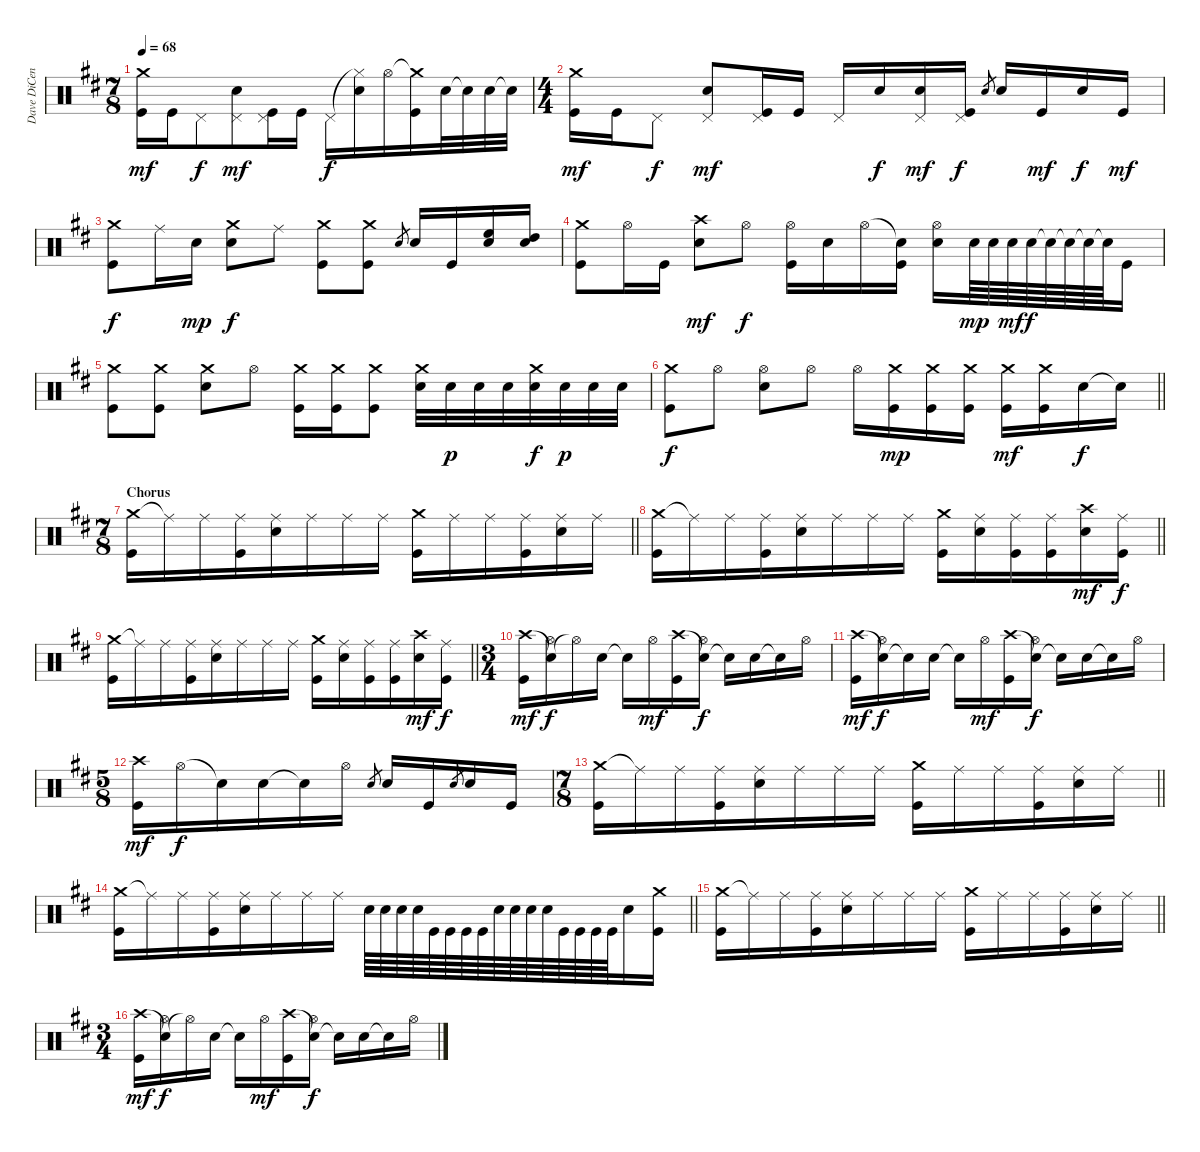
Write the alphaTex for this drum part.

\track ("Dave DiCenso" "Dave DiCen") {instrument percussion}
\staff {score}
\articulation defaults
\ts (7 8)
\tempo 68
\clef neutral
\ks d
("Crash medium (hit)" "Kick (hit)").16{dy mf} "Kick (hit)".16 "Pedal Hi-Hat (hit)".8{dy f} ("Pedal Hi-Hat (hit)" "Electric Snare (hit)").8{dy mf} ("Pedal Hi-Hat (hit)" "Kick (hit)").16 "Kick (hit)".16 "Pedal Hi-Hat (hit)".16{dy f} ("Hi-Hat (closed)"{t} "Electric Snare (hit)").16 "Hi-Hat (open)".16 ("Crash medium (hit)"{t} "Kick (hit)").16 "Electric Snare (hit)".32 "Electric Snare (hit)"{t}.32 "Electric Snare (hit)".32 "Snare (hit)"{t}.32 |
\ts (4 4)
("Crash medium (hit)" "Kick (hit)").16{dy mf} "Kick (hit)".16 "Pedal Hi-Hat (hit)".8{dy f} ("Pedal Hi-Hat (hit)" "Electric Snare (hit)").8{dy mf} ("Pedal Hi-Hat (hit)" "Kick (hit)").16 "Kick (hit)".16 "Pedal Hi-Hat (hit)".16 "Electric Snare (hit)".16{dy f} ("Pedal Hi-Hat (hit)" "Electric Snare (hit)").16{dy mf} ("Pedal Hi-Hat (hit)" "Kick (hit)").16{dy f} "Electric Snare (hit)".8{gr} "Electric Snare (hit)".16 "Kick (hit)".16{dy mf} "Electric Snare (hit)".16{dy f} "Kick (hit)".16{dy mf} |
("Crash medium (hit)" "Kick (hit)").8{dy f} "Ride (middle)".16 "Electric Snare (hit)".16{dy mp} ("Crash medium (hit)" "Electric Snare (hit)").8{dy f} "Ride (middle)".8 ("Crash medium (hit)" "Kick (hit)").8 ("Crash medium (hit)" "Kick (hit)").8 "Electric Snare (hit)".8{gr} "Electric Snare (hit)".16 "Kick (hit)".16 ("Electric Snare (hit)" "High Floor Tom (hit)").16 ("Electric Snare (hit)" "High Tom (hit)").16 |
("Crash medium (hit)" "Kick (hit)").8 "Hi-Hat (open)".16 "Kick (hit)".16 ("Crash high (hit)" "Electric Snare (hit)").8{dy mf} "Hi-Hat (open)".8{dy f} ("Hi-Hat (open)" "Kick (hit)").16 "Electric Snare (hit)".16 "Hi-Hat (open)".16 ("Snare (hit)"{t} "Kick (hit)").16 ("Hi-Hat (open)" "Electric Snare (hit)").16 "Electric Snare (hit)".64{dy mp} "Electric Snare (hit)".64 "Electric Snare (hit)".64{dy mf} "Electric Snare (hit)".64{dy f} "Electric Snare (hit)"{t}.64 "Electric Snare (hit)"{t}.64 "Electric Snare (hit)"{t}.64 "Electric Snare (hit)"{t}.64 "Kick (hit)".16 |
("Crash medium (hit)" "Kick (hit)").8 ("Crash medium (hit)" "Kick (hit)").8 ("Crash medium (hit)" "Electric Snare (hit)").8 "Hi-Hat (open)".8 ("Crash medium (hit)" "Kick (hit)").16 ("Crash medium (hit)" "Kick (hit)").16 ("Crash medium (hit)" "Kick (hit)").8 ("Crash medium (hit)" "Electric Snare (hit)").32 "Electric Snare (hit)".32{dy p} "Electric Snare (hit)".32 "Electric Snare (hit)".32 ("Crash medium (hit)" "Electric Snare (hit)").32{dy f} "Electric Snare (hit)".32{dy p} "Electric Snare (hit)".32 "Electric Snare (hit)".32 |
\barLineRight lightlight
("Crash medium (hit)" "Kick (hit)").8{dy f} "Hi-Hat (open)".8 ("Hi-Hat (open)" "Electric Snare (hit)").8 "Hi-Hat (open)".8 "Hi-Hat (open)".16 ("Crash medium (hit)" "Kick (hit)").16{dy mp} ("Crash medium (hit)" "Kick (hit)").16 ("Crash medium (hit)" "Kick (hit)").16 ("Crash medium (hit)" "Kick (hit)").16{dy mf} ("Crash medium (hit)" "Kick (hit)").16 "Electric Snare (hit)".16{dy f} "Snare (hit)"{t}.16 |
\ts (7 8)
\section ("" "Chorus")
\barLineRight lightlight
("Crash medium (hit)" "Kick (hit)").16 "Ride (middle)"{t}.16 "Ride (middle)".16 ("Ride (middle)" "Kick (hit)").16 ("Ride (middle)" "Electric Snare (hit)").16 "Ride (middle)".16 "Ride (middle)".16 "Ride (middle)".16 ("Crash medium (hit)" "Kick (hit)").16 "Ride (middle)".16 "Ride (middle)".16 ("Ride (middle)" "Kick (hit)").16 ("Ride (middle)" "Electric Snare (hit)").16 "Ride (middle)".16 |
\barLineRight lightlight
("Crash medium (hit)" "Kick (hit)").16 "Ride (middle)"{t}.16 "Ride (middle)".16 ("Ride (middle)" "Kick (hit)").16 ("Ride (middle)" "Electric Snare (hit)").16 "Ride (middle)".16 "Ride (middle)".16 "Ride (middle)".16 ("Crash medium (hit)" "Kick (hit)").16 ("Ride (middle)" "Electric Snare (hit)").16 ("Ride (middle)" "Kick (hit)").16 ("Ride (middle)" "Kick (hit)").16 ("Crash high (hit)" "Electric Snare (hit)").16{dy mf} ("Ride (middle)" "Kick (hit)").16{dy f} |
\barLineRight lightlight
("Crash medium (hit)" "Kick (hit)").16 "Ride (middle)"{t}.16 "Ride (middle)".16 ("Ride (middle)" "Kick (hit)").16 ("Ride (middle)" "Electric Snare (hit)").16 "Ride (middle)".16 "Ride (middle)".16 "Ride (middle)".16 ("Crash medium (hit)" "Kick (hit)").16 ("Ride (middle)" "Electric Snare (hit)").16 ("Ride (middle)" "Kick (hit)").16 ("Ride (middle)" "Kick (hit)").16 ("Crash high (hit)" "Electric Snare (hit)").16{dy mf} ("Ride (middle)" "Kick (hit)").16{dy f} |
\ts (3 4)
("Crash high (hit)" "Kick (hit)").16{dy mf} ("Snare (hit)"{t} "Hi-Hat (open)").16{dy f} "Hi-Hat (open)"{t}.16 "Electric Snare (hit)".16 "Snare (hit)"{t}.16 "Hi-Hat (open)".16{dy mf} ("Crash high (hit)" "Kick (hit)").16 ("Snare (hit)"{t} "Hi-Hat (open)").16{dy f} "Snare (hit)"{t}.16 "Electric Snare (hit)".16 "Snare (hit)"{t}.16 "Hi-Hat (open)".16 |
("Crash high (hit)" "Kick (hit)").16{dy mf} ("Snare (hit)"{t} "Hi-Hat (open)").16{dy f} "Snare (hit)"{t}.16 "Electric Snare (hit)".16 "Snare (hit)"{t}.16 "Hi-Hat (open)".16{dy mf} ("Crash high (hit)" "Kick (hit)").16 ("Snare (hit)"{t} "Hi-Hat (open)").16{dy f} "Snare (hit)"{t}.16 "Electric Snare (hit)".16 "Snare (hit)"{t}.16 "Hi-Hat (open)".16 |
\ts (5 8)
("Crash high (hit)" "Kick (hit)").16{dy mf} "Hi-Hat (open)".16{dy f} "Snare (hit)"{t}.16 "Electric Snare (hit)".16 "Snare (hit)"{t}.16 "Hi-Hat (open)".16 "Electric Snare (hit)".8{gr} "Electric Snare (hit)".16 "Kick (hit)".16 "Electric Snare (hit)".8{gr} "Electric Snare (hit)".16 "Kick (hit)".16 |
\ts (7 8)
\barLineRight lightlight
("Crash medium (hit)" "Kick (hit)").16 "Ride (middle)"{t}.16 "Ride (middle)".16 ("Ride (middle)" "Kick (hit)").16 ("Ride (middle)" "Electric Snare (hit)").16 "Ride (middle)".16 "Ride (middle)".16 "Ride (middle)".16 ("Crash medium (hit)" "Kick (hit)").16 "Ride (middle)".16 "Ride (middle)".16 ("Ride (middle)" "Kick (hit)").16 ("Ride (middle)" "Electric Snare (hit)").16 "Ride (middle)".16 |
\barLineRight lightlight
("Crash medium (hit)" "Kick (hit)").16 "Ride (middle)"{t}.16 "Ride (middle)".16 ("Ride (middle)" "Kick (hit)").16 ("Ride (middle)" "Electric Snare (hit)").16 "Ride (middle)".16 "Ride (middle)".16 "Ride (middle)".16 "Electric Snare (hit)".64 "Electric Snare (hit)".64 "Electric Snare (hit)".64 "Electric Snare (hit)".64 "Kick (hit)".64 "Kick (hit)".64 "Kick (hit)".64 "Kick (hit)".64 "Electric Snare (hit)".64 "Electric Snare (hit)".64 "Electric Snare (hit)".64 "Electric Snare (hit)".64 "Kick (hit)".64 "Kick (hit)".64 "Kick (hit)".64 "Kick (hit)".64 "Electric Snare (hit)".16 ("Crash medium (hit)" "Kick (hit)").16 |
\barLineRight lightlight
("Crash medium (hit)" "Kick (hit)").16 "Ride (middle)"{t}.16 "Ride (middle)".16 ("Ride (middle)" "Kick (hit)").16 ("Ride (middle)" "Electric Snare (hit)").16 "Ride (middle)".16 "Ride (middle)".16 "Ride (middle)".16 ("Crash medium (hit)" "Kick (hit)").16 "Ride (middle)".16 "Ride (middle)".16 ("Ride (middle)" "Kick (hit)").16 ("Ride (middle)" "Electric Snare (hit)").16 "Ride (middle)".16 |
\ts (3 4)
("Crash high (hit)" "Kick (hit)").16{dy mf} ("Snare (hit)"{t} "Hi-Hat (open)").16{dy f} "Hi-Hat (open)"{t}.16 "Electric Snare (hit)".16 "Snare (hit)"{t}.16 "Hi-Hat (open)".16{dy mf} ("Crash high (hit)" "Kick (hit)").16 ("Snare (hit)"{t} "Hi-Hat (open)").16{dy f} "Snare (hit)"{t}.16 "Electric Snare (hit)".16 "Snare (hit)"{t}.16 "Hi-Hat (open)".16
